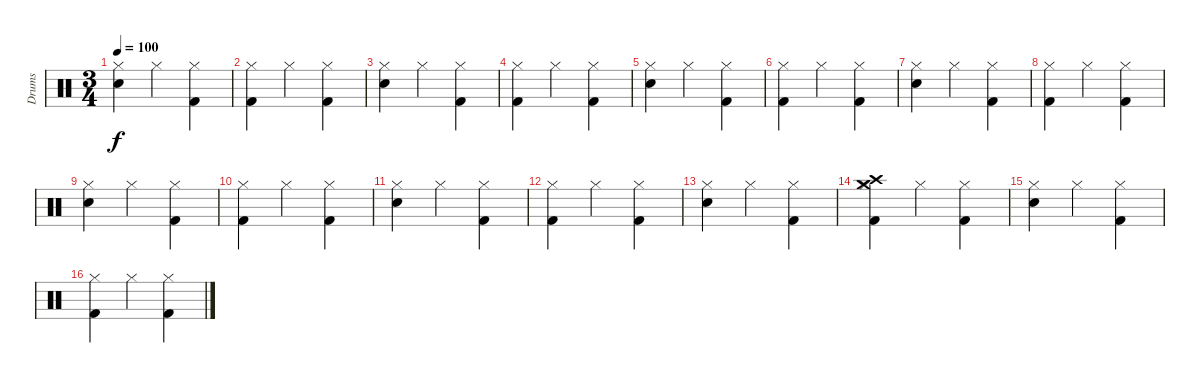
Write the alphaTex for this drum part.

\track ("Drums" "Drums") {instrument percussion}
\staff {score}
\articulation defaults
\ts (3 4)
\tempo 100
\clef neutral
\ks c
("Hi-Hat (closed)" "Electric Snare (hit)").4{dy f} "Hi-Hat (closed)".4 ("Hi-Hat (closed)" "Kick (hit) 2").4 |
("Hi-Hat (closed)" "Kick (hit) 2").4 "Hi-Hat (closed)".4 ("Hi-Hat (closed)" "Kick (hit) 2").4 |
("Hi-Hat (closed)" "Electric Snare (hit)").4 "Hi-Hat (closed)".4 ("Hi-Hat (closed)" "Kick (hit) 2").4 |
("Hi-Hat (closed)" "Kick (hit) 2").4 "Hi-Hat (closed)".4 ("Hi-Hat (closed)" "Kick (hit) 2").4 |
("Hi-Hat (closed)" "Electric Snare (hit)").4 "Hi-Hat (closed)".4 ("Hi-Hat (closed)" "Kick (hit) 2").4 |
("Hi-Hat (closed)" "Kick (hit) 2").4 "Hi-Hat (closed)".4 ("Hi-Hat (closed)" "Kick (hit) 2").4 |
("Hi-Hat (closed)" "Electric Snare (hit)").4 "Hi-Hat (closed)".4 ("Hi-Hat (closed)" "Kick (hit) 2").4 |
("Hi-Hat (closed)" "Kick (hit) 2").4 "Hi-Hat (closed)".4 ("Hi-Hat (closed)" "Kick (hit) 2").4 |
("Hi-Hat (closed)" "Electric Snare (hit)").4 "Hi-Hat (closed)".4 ("Hi-Hat (closed)" "Kick (hit) 2").4 |
("Hi-Hat (closed)" "Kick (hit) 2").4 "Hi-Hat (closed)".4 ("Hi-Hat (closed)" "Kick (hit) 2").4 |
("Hi-Hat (closed)" "Electric Snare (hit)").4 "Hi-Hat (closed)".4 ("Hi-Hat (closed)" "Kick (hit) 2").4 |
("Hi-Hat (closed)" "Kick (hit) 2").4 "Hi-Hat (closed)".4 ("Hi-Hat (closed)" "Kick (hit) 2").4 |
("Hi-Hat (closed)" "Electric Snare (hit)").4 "Hi-Hat (closed)".4 ("Hi-Hat (closed)" "Kick (hit) 2").4 |
("Hi-Hat (closed)" "Crash medium (hit)" "Crash high (hit)" "Kick (hit) 2").4 "Hi-Hat (closed)".4 ("Hi-Hat (closed)" "Kick (hit) 2").4 |
("Hi-Hat (closed)" "Electric Snare (hit)").4 "Hi-Hat (closed)".4 ("Hi-Hat (closed)" "Kick (hit) 2").4 |
("Hi-Hat (closed)" "Kick (hit) 2").4 "Hi-Hat (closed)".4 ("Hi-Hat (closed)" "Kick (hit) 2").4
